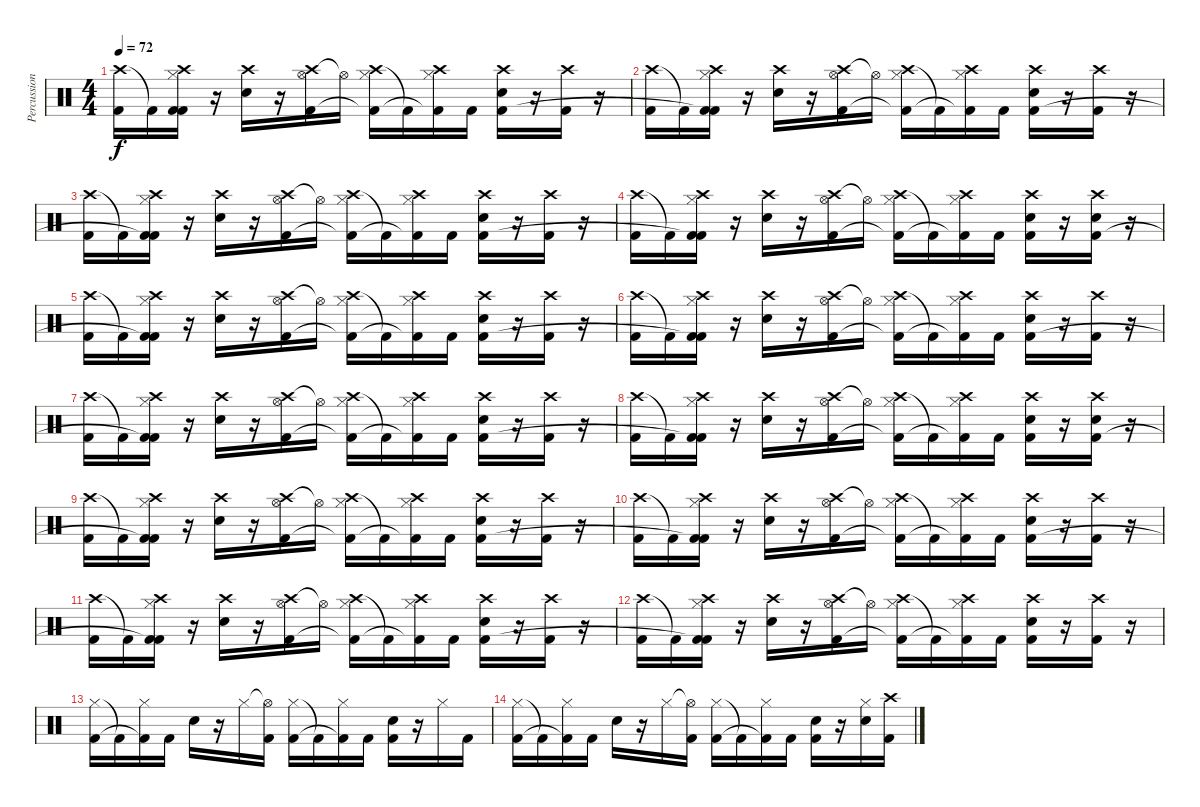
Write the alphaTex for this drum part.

\track ("Percussion" "Percussion") {instrument percussion}
\staff {score}
\articulation defaults
\ts (4 4)
\tempo 72
\clef neutral
\ks c
("Crash high (hit)" "Kick (hit) 2").16{dy f} "Kick (hit) 2"{t}.16 ("Crash high (hit)" "Hi-Hat (closed)" "Kick (hit) 2" "Kick (hit) 2").16 r.16 ("Crash high (hit)" "Snare (hit) 2").16 r.16 ("Crash high (hit)" "Hi-Hat (open)" "Kick (hit) 2").16 "Hi-Hat (open)"{t}.16 ("Crash high (hit)" "Hi-Hat (closed)" "Kick (hit) 2"{t}).16 "Kick (hit) 2"{t}.16 ("Crash high (hit)" "Hi-Hat (closed)" "Kick (hit) 2"{t}).16 "Kick (hit) 2".16 ("Crash high (hit)" "Snare (hit) 2" "Kick (hit) 2").16 r.16 ("Crash high (hit)" "Kick (hit) 2").16 r.16 |
("Crash high (hit)" "Kick (hit) 2").16 "Kick (hit) 2"{t}.16 ("Crash high (hit)" "Hi-Hat (closed)" "Kick (hit) 2"{t} "Kick (hit) 2").16 r.16 ("Crash high (hit)" "Snare (hit) 2").16 r.16 ("Crash high (hit)" "Hi-Hat (open)" "Kick (hit) 2").16 "Hi-Hat (open)"{t}.16 ("Crash high (hit)" "Hi-Hat (closed)" "Kick (hit) 2"{t}).16 "Kick (hit) 2"{t}.16 ("Crash high (hit)" "Hi-Hat (closed)" "Kick (hit) 2"{t}).16 "Kick (hit) 2".16 ("Crash high (hit)" "Snare (hit) 2" "Kick (hit) 2").16 r.16 ("Crash high (hit)" "Kick (hit) 2").16 r.16 |
("Crash high (hit)" "Kick (hit) 2").16 "Kick (hit) 2"{t}.16 ("Crash high (hit)" "Hi-Hat (closed)" "Kick (hit) 2"{t} "Kick (hit) 2").16 r.16 ("Crash high (hit)" "Snare (hit) 2").16 r.16 ("Crash high (hit)" "Hi-Hat (open)" "Kick (hit) 2").16 "Hi-Hat (open)"{t}.16 ("Crash high (hit)" "Hi-Hat (closed)" "Kick (hit) 2"{t}).16 "Kick (hit) 2"{t}.16 ("Crash high (hit)" "Hi-Hat (closed)" "Kick (hit) 2"{t}).16 "Kick (hit) 2".16 ("Crash high (hit)" "Snare (hit) 2" "Kick (hit) 2").16 r.16 ("Crash high (hit)" "Kick (hit) 2").16 r.16 |
("Crash high (hit)" "Kick (hit) 2").16 "Kick (hit) 2"{t}.16 ("Crash high (hit)" "Hi-Hat (closed)" "Kick (hit) 2"{t} "Kick (hit) 2").16 r.16 ("Crash high (hit)" "Snare (hit) 2").16 r.16 ("Crash high (hit)" "Hi-Hat (open)" "Kick (hit) 2").16 "Hi-Hat (open)"{t}.16 ("Crash high (hit)" "Hi-Hat (closed)" "Kick (hit) 2"{t}).16 "Kick (hit) 2"{t}.16 ("Crash high (hit)" "Hi-Hat (closed)" "Kick (hit) 2"{t}).16 "Kick (hit) 2".16 ("Crash high (hit)" "Snare (hit) 2" "Kick (hit) 2").16 r.16 ("Crash high (hit)" "Snare (hit) 2" "Kick (hit) 2").16 r.16 |
("Crash high (hit)" "Kick (hit) 2").16 "Kick (hit) 2"{t}.16 ("Crash high (hit)" "Hi-Hat (closed)" "Kick (hit) 2"{t} "Kick (hit) 2").16 r.16 ("Crash high (hit)" "Snare (hit) 2").16 r.16 ("Crash high (hit)" "Hi-Hat (open)" "Kick (hit) 2").16 "Hi-Hat (open)"{t}.16 ("Crash high (hit)" "Hi-Hat (closed)" "Kick (hit) 2"{t}).16 "Kick (hit) 2"{t}.16 ("Crash high (hit)" "Hi-Hat (closed)" "Kick (hit) 2"{t}).16 "Kick (hit) 2".16 ("Crash high (hit)" "Snare (hit) 2" "Kick (hit) 2").16 r.16 ("Crash high (hit)" "Kick (hit) 2").16 r.16 |
("Crash high (hit)" "Kick (hit) 2").16 "Kick (hit) 2"{t}.16 ("Crash high (hit)" "Hi-Hat (closed)" "Kick (hit) 2"{t} "Kick (hit) 2").16 r.16 ("Crash high (hit)" "Snare (hit) 2").16 r.16 ("Crash high (hit)" "Hi-Hat (open)" "Kick (hit) 2").16 "Hi-Hat (open)"{t}.16 ("Crash high (hit)" "Hi-Hat (closed)" "Kick (hit) 2"{t}).16 "Kick (hit) 2"{t}.16 ("Crash high (hit)" "Hi-Hat (closed)" "Kick (hit) 2"{t}).16 "Kick (hit) 2".16 ("Crash high (hit)" "Snare (hit) 2" "Kick (hit) 2").16 r.16 ("Crash high (hit)" "Kick (hit) 2").16 r.16 |
("Crash high (hit)" "Kick (hit) 2").16 "Kick (hit) 2"{t}.16 ("Crash high (hit)" "Hi-Hat (closed)" "Kick (hit) 2"{t} "Kick (hit) 2").16 r.16 ("Crash high (hit)" "Snare (hit) 2").16 r.16 ("Crash high (hit)" "Hi-Hat (open)" "Kick (hit) 2").16 "Hi-Hat (open)"{t}.16 ("Crash high (hit)" "Hi-Hat (closed)" "Kick (hit) 2"{t}).16 "Kick (hit) 2"{t}.16 ("Crash high (hit)" "Hi-Hat (closed)" "Kick (hit) 2"{t}).16 "Kick (hit) 2".16 ("Crash high (hit)" "Snare (hit) 2" "Kick (hit) 2").16 r.16 ("Crash high (hit)" "Kick (hit) 2").16 r.16 |
("Crash high (hit)" "Kick (hit) 2").16 "Kick (hit) 2"{t}.16 ("Crash high (hit)" "Hi-Hat (closed)" "Kick (hit) 2"{t} "Kick (hit) 2").16 r.16 ("Crash high (hit)" "Snare (hit) 2").16 r.16 ("Crash high (hit)" "Hi-Hat (open)" "Kick (hit) 2").16 "Hi-Hat (open)"{t}.16 ("Crash high (hit)" "Hi-Hat (closed)" "Kick (hit) 2"{t}).16 "Kick (hit) 2"{t}.16 ("Crash high (hit)" "Hi-Hat (closed)" "Kick (hit) 2"{t}).16 "Kick (hit) 2".16 ("Crash high (hit)" "Snare (hit) 2" "Kick (hit) 2").16 r.16 ("Crash high (hit)" "Snare (hit) 2" "Kick (hit) 2").16 r.16 |
("Crash high (hit)" "Kick (hit) 2").16 "Kick (hit) 2"{t}.16 ("Crash high (hit)" "Hi-Hat (closed)" "Kick (hit) 2"{t} "Kick (hit) 2").16 r.16 ("Crash high (hit)" "Snare (hit) 2").16 r.16 ("Crash high (hit)" "Hi-Hat (open)" "Kick (hit) 2").16 "Hi-Hat (open)"{t}.16 ("Crash high (hit)" "Hi-Hat (closed)" "Kick (hit) 2"{t}).16 "Kick (hit) 2"{t}.16 ("Crash high (hit)" "Hi-Hat (closed)" "Kick (hit) 2"{t}).16 "Kick (hit) 2".16 ("Crash high (hit)" "Snare (hit) 2" "Kick (hit) 2").16 r.16 ("Crash high (hit)" "Kick (hit) 2").16 r.16 |
("Crash high (hit)" "Kick (hit) 2").16 "Kick (hit) 2"{t}.16 ("Crash high (hit)" "Hi-Hat (closed)" "Kick (hit) 2"{t} "Kick (hit) 2").16 r.16 ("Crash high (hit)" "Snare (hit) 2").16 r.16 ("Crash high (hit)" "Hi-Hat (open)" "Kick (hit) 2").16 "Hi-Hat (open)"{t}.16 ("Crash high (hit)" "Hi-Hat (closed)" "Kick (hit) 2"{t}).16 "Kick (hit) 2"{t}.16 ("Crash high (hit)" "Hi-Hat (closed)" "Kick (hit) 2"{t}).16 "Kick (hit) 2".16 ("Crash high (hit)" "Snare (hit) 2" "Kick (hit) 2").16 r.16 ("Crash high (hit)" "Kick (hit) 2").16 r.16 |
("Crash high (hit)" "Kick (hit) 2").16 "Kick (hit) 2"{t}.16 ("Crash high (hit)" "Hi-Hat (closed)" "Kick (hit) 2"{t} "Kick (hit) 2").16 r.16 ("Crash high (hit)" "Snare (hit) 2").16 r.16 ("Crash high (hit)" "Hi-Hat (open)" "Kick (hit) 2").16 "Hi-Hat (open)"{t}.16 ("Crash high (hit)" "Hi-Hat (closed)" "Kick (hit) 2"{t}).16 "Kick (hit) 2"{t}.16 ("Crash high (hit)" "Hi-Hat (closed)" "Kick (hit) 2"{t}).16 "Kick (hit) 2".16 ("Crash high (hit)" "Snare (hit) 2" "Kick (hit) 2").16 r.16 ("Crash high (hit)" "Kick (hit) 2").16 r.16 |
("Crash high (hit)" "Kick (hit) 2").16 "Kick (hit) 2"{t}.16 ("Crash high (hit)" "Hi-Hat (closed)" "Kick (hit) 2"{t} "Kick (hit) 2").16 r.16 ("Crash high (hit)" "Snare (hit) 2").16 r.16 ("Crash high (hit)" "Hi-Hat (open)" "Kick (hit) 2").16 "Hi-Hat (open)"{t}.16 ("Crash high (hit)" "Hi-Hat (closed)" "Kick (hit) 2"{t}).16 "Kick (hit) 2"{t}.16 ("Crash high (hit)" "Hi-Hat (closed)" "Kick (hit) 2"{t}).16 "Kick (hit) 2".16 ("Crash high (hit)" "Snare (hit) 2" "Kick (hit) 2").16 r.16 ("Crash high (hit)" "Kick (hit) 2").16 r.16 |
("Hi-Hat (closed)" "Kick (hit) 2").16 "Kick (hit) 2"{t}.16 ("Hi-Hat (closed)" "Kick (hit) 2"{t}).16 "Kick (hit) 2".16 "Snare (hit) 2".16 r.16 "Hi-Hat (closed)".16 ("Hi-Hat (open)"{t} "Kick (hit) 2").16 ("Hi-Hat (closed)" "Kick (hit) 2").16 "Kick (hit) 2"{t}.16 ("Hi-Hat (closed)" "Kick (hit) 2"{t}).16 "Kick (hit) 2".16 ("Snare (hit) 2" "Kick (hit) 2").16 r.16 "Hi-Hat (closed)".16 "Kick (hit) 2".16 |
("Hi-Hat (closed)" "Kick (hit) 2").16 "Kick (hit) 2"{t}.16 ("Hi-Hat (closed)" "Kick (hit) 2"{t}).16 "Kick (hit) 2".16 "Snare (hit) 2".16 r.16 "Hi-Hat (closed)".16 ("Hi-Hat (open)"{t} "Kick (hit) 2").16 ("Hi-Hat (closed)" "Kick (hit) 2").16 "Kick (hit) 2"{t}.16 ("Hi-Hat (closed)" "Kick (hit) 2"{t}).16 "Kick (hit) 2".16 ("Snare (hit) 2" "Kick (hit) 2").16 r.16 ("Snare (hit) 2" "Hi-Hat (closed)").16 ("Crash high (hit)" "Kick (hit) 2").16
